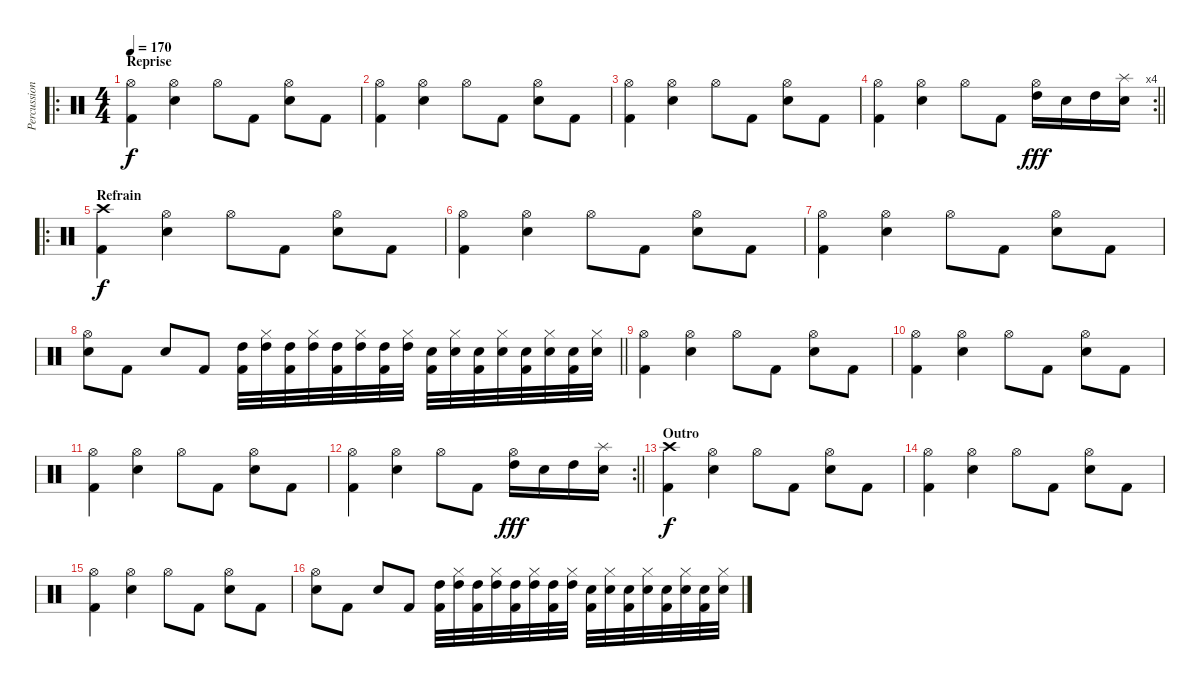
\track ("Percussions" "Percussion") {instrument percussion}
\staff {score}
\articulation defaults
\ro
\ts (4 4)
\section ("" "Reprise")
\tempo 170
\clef neutral
\ks c
("Hi-Hat (open)" "Kick (hit) 2").4{dy f} ("Hi-Hat (open)" "Snare (hit) 2").4 "Hi-Hat (open)".8 "Kick (hit) 2".8 ("Hi-Hat (open)" "Snare (hit) 2").8 "Kick (hit) 2".8 |
("Hi-Hat (open)" "Kick (hit) 2").4 ("Hi-Hat (open)" "Snare (hit) 2").4 "Hi-Hat (open)".8 "Kick (hit) 2".8 ("Hi-Hat (open)" "Snare (hit) 2").8 "Kick (hit) 2".8 |
("Hi-Hat (open)" "Kick (hit) 2").4 ("Hi-Hat (open)" "Snare (hit) 2").4 "Hi-Hat (open)".8 "Kick (hit) 2".8 ("Hi-Hat (open)" "Snare (hit) 2").8 "Kick (hit) 2".8 |
\rc 4
\barLineRight lightlight
("Hi-Hat (open)" "Kick (hit) 2").4 ("Hi-Hat (open)" "Snare (hit) 2").4 "Hi-Hat (open)".8 "Kick (hit) 2".8 ("Hi-Hat (open)" "High Tom (hit)").16{dy fff} "Snare (hit) 2".16 "High Tom (hit)".16 ("Splash (hit)" "Snare (hit) 2").16 |
\ro
\section ("" "Refrain")
("Crash high (hit)" "Kick (hit) 2").4{dy f} ("Hi-Hat (open)" "Snare (hit) 2").4 "Hi-Hat (open)".8 "Kick (hit) 2".8 ("Hi-Hat (open)" "Snare (hit) 2").8 "Kick (hit) 2".8 |
("Hi-Hat (open)" "Kick (hit) 2").4 ("Hi-Hat (open)" "Snare (hit) 2").4 "Hi-Hat (open)".8 "Kick (hit) 2".8 ("Hi-Hat (open)" "Snare (hit) 2").8 "Kick (hit) 2".8 |
("Hi-Hat (open)" "Kick (hit) 2").4 ("Hi-Hat (open)" "Snare (hit) 2").4 "Hi-Hat (open)".8 "Kick (hit) 2".8 ("Hi-Hat (open)" "Snare (hit) 2").8 "Kick (hit) 2".8 |
\barLineRight lightlight
("Hi-Hat (open)" "Snare (hit) 2").8 "Kick (hit) 2".8 "Snare (hit) 2".8 "Kick (hit) 2".8 ("High Tom (hit)" "Kick (hit) 2").32 ("Hi-Hat (closed)" "High Tom (hit)").32 ("High Tom (hit)" "Kick (hit) 2").32 ("Hi-Hat (closed)" "High Tom (hit)").32 ("High Tom (hit)" "Kick (hit) 2").32 ("Hi-Hat (closed)" "High Tom (hit)").32 ("High Tom (hit)" "Kick (hit) 2").32 ("Hi-Hat (closed)" "High Tom (hit)").32 ("Snare (hit) 2" "Kick (hit) 2").32 ("Hi-Hat (closed)" "Snare (hit) 2").32 ("Snare (hit) 2" "Kick (hit) 2").32 ("Hi-Hat (closed)" "Snare (hit) 2").32 ("Snare (hit) 2" "Kick (hit) 2").32 ("Hi-Hat (closed)" "Snare (hit) 2").32 ("Snare (hit) 2" "Kick (hit) 2").32 ("Hi-Hat (closed)" "Snare (hit) 2").32 |
("Hi-Hat (open)" "Kick (hit) 2").4 ("Hi-Hat (open)" "Snare (hit) 2").4 "Hi-Hat (open)".8 "Kick (hit) 2".8 ("Hi-Hat (open)" "Snare (hit) 2").8 "Kick (hit) 2".8 |
("Hi-Hat (open)" "Kick (hit) 2").4 ("Hi-Hat (open)" "Snare (hit) 2").4 "Hi-Hat (open)".8 "Kick (hit) 2".8 ("Hi-Hat (open)" "Snare (hit) 2").8 "Kick (hit) 2".8 |
("Hi-Hat (open)" "Kick (hit) 2").4 ("Hi-Hat (open)" "Snare (hit) 2").4 "Hi-Hat (open)".8 "Kick (hit) 2".8 ("Hi-Hat (open)" "Snare (hit) 2").8 "Kick (hit) 2".8 |
\rc 2
\barLineRight lightlight
("Hi-Hat (open)" "Kick (hit) 2").4 ("Hi-Hat (open)" "Snare (hit) 2").4 "Hi-Hat (open)".8 "Kick (hit) 2".8 ("Hi-Hat (open)" "High Tom (hit)").16{dy fff} "Snare (hit) 2".16 "High Tom (hit)".16 ("Splash (hit)" "Snare (hit) 2").16 |
\section ("" "Outro")
("Crash high (hit)" "Kick (hit) 2").4{dy f} ("Hi-Hat (open)" "Snare (hit) 2").4 "Hi-Hat (open)".8 "Kick (hit) 2".8 ("Hi-Hat (open)" "Snare (hit) 2").8 "Kick (hit) 2".8 |
("Hi-Hat (open)" "Kick (hit) 2").4 ("Hi-Hat (open)" "Snare (hit) 2").4 "Hi-Hat (open)".8 "Kick (hit) 2".8 ("Hi-Hat (open)" "Snare (hit) 2").8 "Kick (hit) 2".8 |
("Hi-Hat (open)" "Kick (hit) 2").4 ("Hi-Hat (open)" "Snare (hit) 2").4 "Hi-Hat (open)".8 "Kick (hit) 2".8 ("Hi-Hat (open)" "Snare (hit) 2").8 "Kick (hit) 2".8 |
("Hi-Hat (open)" "Snare (hit) 2").8 "Kick (hit) 2".8 "Snare (hit) 2".8 "Kick (hit) 2".8 ("High Tom (hit)" "Kick (hit) 2").32 ("Hi-Hat (closed)" "High Tom (hit)").32 ("High Tom (hit)" "Kick (hit) 2").32 ("Hi-Hat (closed)" "High Tom (hit)").32 ("High Tom (hit)" "Kick (hit) 2").32 ("Hi-Hat (closed)" "High Tom (hit)").32 ("High Tom (hit)" "Kick (hit) 2").32 ("Hi-Hat (closed)" "High Tom (hit)").32 ("Snare (hit) 2" "Kick (hit) 2").32 ("Hi-Hat (closed)" "Snare (hit) 2").32 ("Snare (hit) 2" "Kick (hit) 2").32 ("Hi-Hat (closed)" "Snare (hit) 2").32 ("Snare (hit) 2" "Kick (hit) 2").32 ("Hi-Hat (closed)" "Snare (hit) 2").32 ("Snare (hit) 2" "Kick (hit) 2").32 ("Hi-Hat (closed)" "Snare (hit) 2").32
